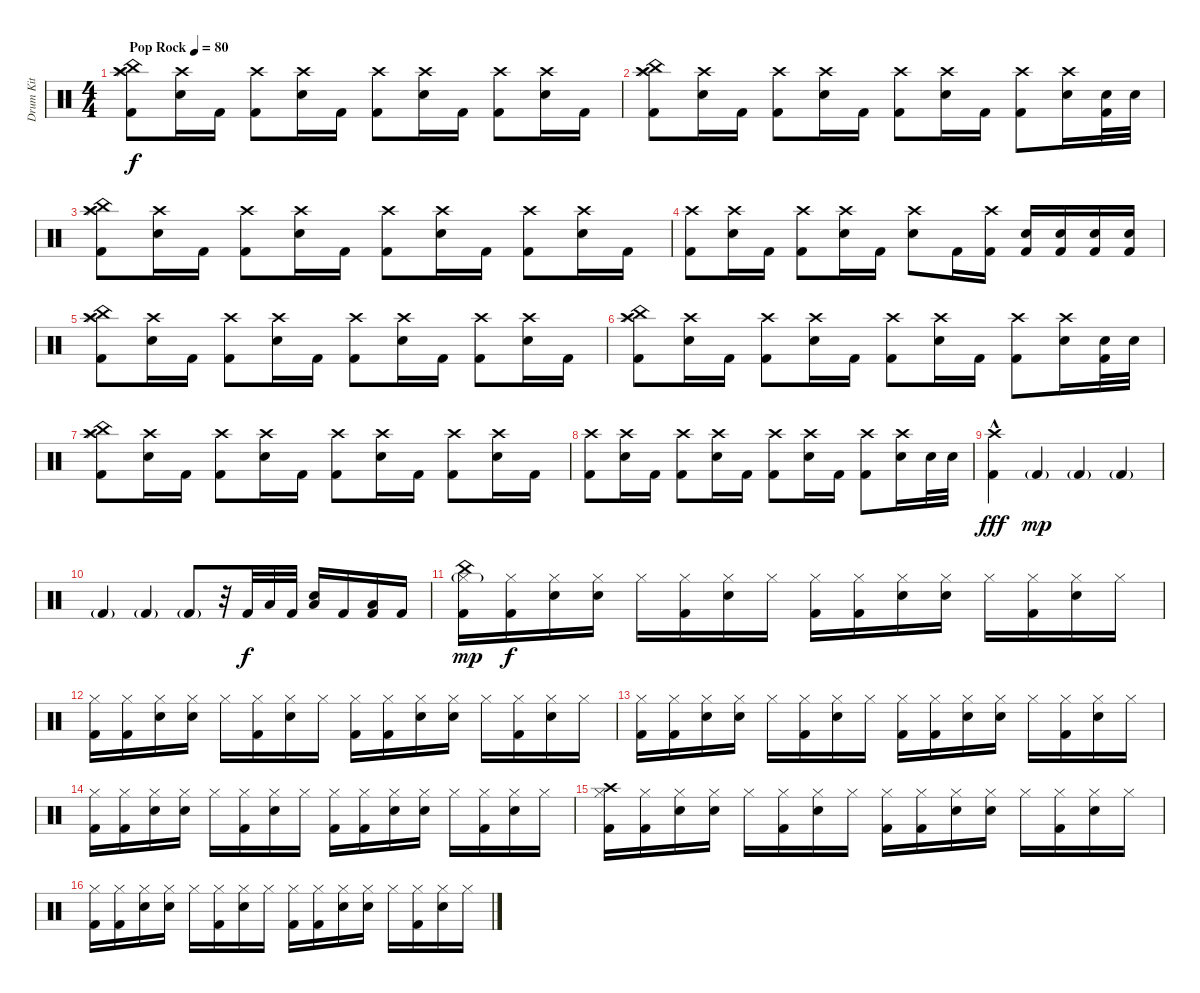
\track ("Drum Kit" "Drum Kit") {instrument percussion}
\staff {score}
\articulation defaults
\ts (4 4)
\tempo (80 "Pop Rock")
\clef neutral
\ks c
("China (hit)" "Crash high (hit)" "Splash (hit)" "Kick (hit) 2").8{dy f} ("Crash high (hit)" "Snare (hit) 2").16 "Kick (hit) 2".16 ("Crash high (hit)" "Kick (hit) 2").8 ("Crash high (hit)" "Snare (hit) 2").16 "Kick (hit) 2".16 ("Crash high (hit)" "Kick (hit) 2").8 ("Crash high (hit)" "Snare (hit) 2").16 "Kick (hit) 2".16 ("Crash high (hit)" "Kick (hit) 2").8 ("Crash high (hit)" "Snare (hit) 2").16 "Kick (hit) 2".16 |
("China (hit)" "Crash high (hit)" "Splash (hit)" "Kick (hit) 2").8 ("Crash high (hit)" "Snare (hit) 2").16 "Kick (hit) 2".16 ("Crash high (hit)" "Kick (hit) 2").8 ("Crash high (hit)" "Snare (hit) 2").16 "Kick (hit) 2".16 ("Crash high (hit)" "Kick (hit) 2").8 ("Crash high (hit)" "Snare (hit) 2").16 "Kick (hit) 2".16 ("Crash high (hit)" "Kick (hit) 2").8 ("Crash high (hit)" "Snare (hit) 2").16 ("Snare (hit) 2" "Kick (hit) 2").32 "Snare (hit) 2".32 |
("China (hit)" "Crash high (hit)" "Splash (hit)" "Kick (hit) 2").8 ("Crash high (hit)" "Snare (hit) 2").16 "Kick (hit) 2".16 ("Crash high (hit)" "Kick (hit) 2").8 ("Crash high (hit)" "Snare (hit) 2").16 "Kick (hit) 2".16 ("Crash high (hit)" "Kick (hit) 2").8 ("Crash high (hit)" "Snare (hit) 2").16 "Kick (hit) 2".16 ("Crash high (hit)" "Kick (hit) 2").8 ("Crash high (hit)" "Snare (hit) 2").16 "Kick (hit) 2".16 |
("Crash high (hit)" "Kick (hit) 2").8 ("Crash high (hit)" "Snare (hit) 2").16 "Kick (hit) 2".16 ("Crash high (hit)" "Kick (hit) 2").8 ("Crash high (hit)" "Snare (hit) 2").16 "Kick (hit) 2".16 ("Crash high (hit)" "Snare (hit) 2").8 "Kick (hit) 2".16 ("Crash high (hit)" "Kick (hit) 2").16 ("Snare (hit) 2" "Kick (hit) 2").16 ("Snare (hit) 2" "Kick (hit) 2").16 ("Snare (hit) 2" "Kick (hit) 2").16 ("Snare (hit) 2" "Kick (hit) 2").16 |
("China (hit)" "Crash high (hit)" "Splash (hit)" "Kick (hit) 2").8 ("Crash high (hit)" "Snare (hit) 2").16 "Kick (hit) 2".16 ("Crash high (hit)" "Kick (hit) 2").8 ("Crash high (hit)" "Snare (hit) 2").16 "Kick (hit) 2".16 ("Crash high (hit)" "Kick (hit) 2").8 ("Crash high (hit)" "Snare (hit) 2").16 "Kick (hit) 2".16 ("Crash high (hit)" "Kick (hit) 2").8 ("Crash high (hit)" "Snare (hit) 2").16 "Kick (hit) 2".16 |
("China (hit)" "Crash high (hit)" "Splash (hit)" "Kick (hit) 2").8 ("Crash high (hit)" "Snare (hit) 2").16 "Kick (hit) 2".16 ("Crash high (hit)" "Kick (hit) 2").8 ("Crash high (hit)" "Snare (hit) 2").16 "Kick (hit) 2".16 ("Crash high (hit)" "Kick (hit) 2").8 ("Crash high (hit)" "Snare (hit) 2").16 "Kick (hit) 2".16 ("Crash high (hit)" "Kick (hit) 2").8 ("Crash high (hit)" "Snare (hit) 2").16 ("Snare (hit) 2" "Kick (hit) 2").32 "Snare (hit) 2".32 |
("China (hit)" "Crash high (hit)" "Splash (hit)" "Kick (hit) 2").8 ("Crash high (hit)" "Snare (hit) 2").16 "Kick (hit) 2".16 ("Crash high (hit)" "Kick (hit) 2").8 ("Crash high (hit)" "Snare (hit) 2").16 "Kick (hit) 2".16 ("Crash high (hit)" "Kick (hit) 2").8 ("Crash high (hit)" "Snare (hit) 2").16 "Kick (hit) 2".16 ("Crash high (hit)" "Kick (hit) 2").8 ("Crash high (hit)" "Snare (hit) 2").16 "Kick (hit) 2".16 |
("Crash high (hit)" "Kick (hit) 2").8 ("Crash high (hit)" "Snare (hit) 2").16 "Kick (hit) 2".16 ("Crash high (hit)" "Kick (hit) 2").8 ("Crash high (hit)" "Snare (hit) 2").16 "Kick (hit) 2".16 ("Crash high (hit)" "Kick (hit) 2").8 ("Crash high (hit)" "Snare (hit) 2").16 "Kick (hit) 2".16 ("Crash high (hit)" "Kick (hit) 2").8 ("Crash high (hit)" "Snare (hit) 2").16 "Snare (hit) 2".32 "Snare (hit) 2".32 |
("Crash high (hit)"{hac} "Kick (hit) 2"{hac}).4{dy fff} "Kick (hit) 2"{g}.4{dy mp} "Kick (hit) 2"{g}.4 "Kick (hit) 2"{g}.4 |
"Kick (hit) 2"{g}.4 "Kick (hit) 2"{g}.4 "Kick (hit) 2"{g}.8 r.32 "Kick (hit) 2".32{dy f} "Low Floor Tom (hit)".32 "Kick (hit) 2".32 ("Low Floor Tom (hit)" "Snare (hit) 2").16 "Kick (hit) 2".16 ("Low Floor Tom (hit)" "Kick (hit) 2").16 "Kick (hit) 2".16 |
("China (hit)" "Hi-Hat (closed)"{g} "Kick (hit) 2").16{dy mp} ("Hi-Hat (closed)" "Kick (hit) 2").16{dy f} ("Hi-Hat (closed)" "Snare (hit) 2").16 ("Hi-Hat (closed)" "Snare (hit) 2").16 "Hi-Hat (closed)".16 ("Hi-Hat (closed)" "Kick (hit) 2").16 ("Hi-Hat (closed)" "Snare (hit) 2").16 "Hi-Hat (closed)".16 ("Hi-Hat (closed)" "Kick (hit) 2").16 ("Hi-Hat (closed)" "Kick (hit) 2").16 ("Hi-Hat (closed)" "Snare (hit) 2").16 ("Hi-Hat (closed)" "Snare (hit) 2").16 "Hi-Hat (closed)".16 ("Hi-Hat (closed)" "Kick (hit) 2").16 ("Hi-Hat (closed)" "Snare (hit) 2").16 "Hi-Hat (closed)".16 |
("Hi-Hat (closed)" "Kick (hit) 2").16 ("Hi-Hat (closed)" "Kick (hit) 2").16 ("Hi-Hat (closed)" "Snare (hit) 2").16 ("Hi-Hat (closed)" "Snare (hit) 2").16 "Hi-Hat (closed)".16 ("Hi-Hat (closed)" "Kick (hit) 2").16 ("Hi-Hat (closed)" "Snare (hit) 2").16 "Hi-Hat (closed)".16 ("Hi-Hat (closed)" "Kick (hit) 2").16 ("Hi-Hat (closed)" "Kick (hit) 2").16 ("Hi-Hat (closed)" "Snare (hit) 2").16 ("Hi-Hat (closed)" "Snare (hit) 2").16 "Hi-Hat (closed)".16 ("Hi-Hat (closed)" "Kick (hit) 2").16 ("Hi-Hat (closed)" "Snare (hit) 2").16 "Hi-Hat (closed)".16 |
("Hi-Hat (closed)" "Kick (hit) 2").16 ("Hi-Hat (closed)" "Kick (hit) 2").16 ("Hi-Hat (closed)" "Snare (hit) 2").16 ("Hi-Hat (closed)" "Snare (hit) 2").16 "Hi-Hat (closed)".16 ("Hi-Hat (closed)" "Kick (hit) 2").16 ("Hi-Hat (closed)" "Snare (hit) 2").16 "Hi-Hat (closed)".16 ("Hi-Hat (closed)" "Kick (hit) 2").16 ("Hi-Hat (closed)" "Kick (hit) 2").16 ("Hi-Hat (closed)" "Snare (hit) 2").16 ("Hi-Hat (closed)" "Snare (hit) 2").16 "Hi-Hat (closed)".16 ("Hi-Hat (closed)" "Kick (hit) 2").16 ("Hi-Hat (closed)" "Snare (hit) 2").16 "Hi-Hat (closed)".16 |
("Hi-Hat (closed)" "Kick (hit) 2").16 ("Hi-Hat (closed)" "Kick (hit) 2").16 ("Hi-Hat (closed)" "Snare (hit) 2").16 ("Hi-Hat (closed)" "Snare (hit) 2").16 "Hi-Hat (closed)".16 ("Hi-Hat (closed)" "Kick (hit) 2").16 ("Hi-Hat (closed)" "Snare (hit) 2").16 "Hi-Hat (closed)".16 ("Hi-Hat (closed)" "Kick (hit) 2").16 ("Hi-Hat (closed)" "Kick (hit) 2").16 ("Hi-Hat (closed)" "Snare (hit) 2").16 ("Hi-Hat (closed)" "Snare (hit) 2").16 "Hi-Hat (closed)".16 ("Hi-Hat (closed)" "Kick (hit) 2").16 ("Hi-Hat (closed)" "Snare (hit) 2").16 "Hi-Hat (closed)".16 |
("Crash high (hit)" "Hi-Hat (closed)" "Kick (hit) 2").16 ("Hi-Hat (closed)" "Kick (hit) 2").16 ("Hi-Hat (closed)" "Snare (hit) 2").16 ("Hi-Hat (closed)" "Snare (hit) 2").16 "Hi-Hat (closed)".16 ("Hi-Hat (closed)" "Kick (hit) 2").16 ("Hi-Hat (closed)" "Snare (hit) 2").16 "Hi-Hat (closed)".16 ("Hi-Hat (closed)" "Kick (hit) 2").16 ("Hi-Hat (closed)" "Kick (hit) 2").16 ("Hi-Hat (closed)" "Snare (hit) 2").16 ("Hi-Hat (closed)" "Snare (hit) 2").16 "Hi-Hat (closed)".16 ("Hi-Hat (closed)" "Kick (hit) 2").16 ("Hi-Hat (closed)" "Snare (hit) 2").16 "Hi-Hat (closed)".16 |
("Hi-Hat (closed)" "Kick (hit) 2").16 ("Hi-Hat (closed)" "Kick (hit) 2").16 ("Hi-Hat (closed)" "Snare (hit) 2").16 ("Hi-Hat (closed)" "Snare (hit) 2").16 "Hi-Hat (closed)".16 ("Hi-Hat (closed)" "Kick (hit) 2").16 ("Hi-Hat (closed)" "Snare (hit) 2").16 "Hi-Hat (closed)".16 ("Hi-Hat (closed)" "Kick (hit) 2").16 ("Hi-Hat (closed)" "Kick (hit) 2").16 ("Hi-Hat (closed)" "Snare (hit) 2").16 ("Hi-Hat (closed)" "Snare (hit) 2").16 "Hi-Hat (closed)".16 ("Hi-Hat (closed)" "Kick (hit) 2").16 ("Hi-Hat (closed)" "Snare (hit) 2").16 "Hi-Hat (closed)".16
